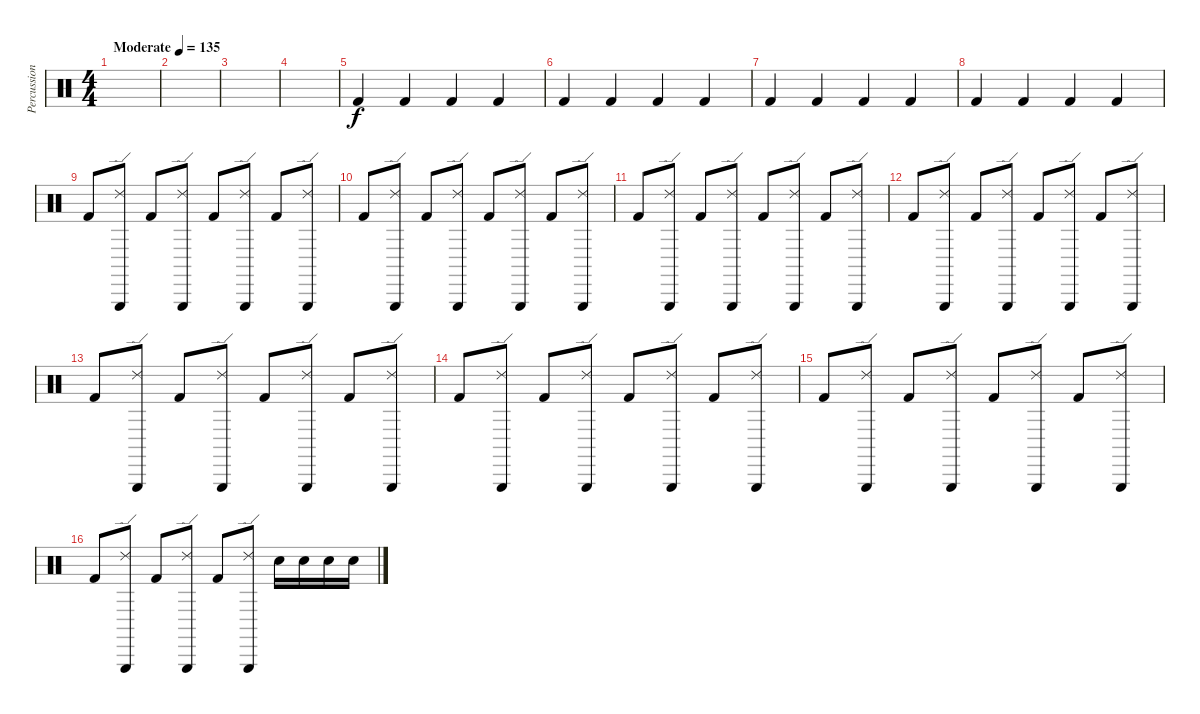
\track ("Percussion" "Percussion") {instrument percussion}
\staff {score}
\articulation defaults
\ts (4 4)
\tempo (135 "Moderate")
\clef neutral
\ks c
|
|
|
|
"Kick (hit) 2".4 "Kick (hit) 2".4 "Kick (hit) 2".4 "Kick (hit) 2".4 |
"Kick (hit) 2".4 "Kick (hit) 2".4 "Kick (hit) 2".4 "Kick (hit) 2".4 |
"Kick (hit) 2".4 "Kick (hit) 2".4 "Kick (hit) 2".4 "Kick (hit) 2".4 |
"Kick (hit) 2".4 "Kick (hit) 2".4 "Kick (hit) 2".4 "Kick (hit) 2".4 |
"Kick (hit) 2".8 ("Triangle (hit)" "Ride (edge) 2").8 "Kick (hit) 2".8 ("Triangle (hit)" "Ride (edge) 2").8 "Kick (hit) 2".8 ("Triangle (hit)" "Ride (edge) 2").8 "Kick (hit) 2".8 ("Triangle (hit)" "Ride (edge) 2").8 |
"Kick (hit) 2".8 ("Triangle (hit)" "Ride (edge) 2").8 "Kick (hit) 2".8 ("Triangle (hit)" "Ride (edge) 2").8 "Kick (hit) 2".8 ("Triangle (hit)" "Ride (edge) 2").8 "Kick (hit) 2".8 ("Triangle (hit)" "Ride (edge) 2").8 |
"Kick (hit) 2".8 ("Triangle (hit)" "Ride (edge) 2").8 "Kick (hit) 2".8 ("Triangle (hit)" "Ride (edge) 2").8 "Kick (hit) 2".8 ("Triangle (hit)" "Ride (edge) 2").8 "Kick (hit) 2".8 ("Triangle (hit)" "Ride (edge) 2").8 |
"Kick (hit) 2".8 ("Triangle (hit)" "Ride (edge) 2").8 "Kick (hit) 2".8 ("Triangle (hit)" "Ride (edge) 2").8 "Kick (hit) 2".8 ("Triangle (hit)" "Ride (edge) 2").8 "Kick (hit) 2".8 ("Triangle (hit)" "Ride (edge) 2").8 |
"Kick (hit) 2".8 ("Triangle (hit)" "Ride (edge) 2").8 "Kick (hit) 2".8 ("Triangle (hit)" "Ride (edge) 2").8 "Kick (hit) 2".8 ("Triangle (hit)" "Ride (edge) 2").8 "Kick (hit) 2".8 ("Triangle (hit)" "Ride (edge) 2").8 |
"Kick (hit) 2".8 ("Triangle (hit)" "Ride (edge) 2").8 "Kick (hit) 2".8 ("Triangle (hit)" "Ride (edge) 2").8 "Kick (hit) 2".8 ("Triangle (hit)" "Ride (edge) 2").8 "Kick (hit) 2".8 ("Triangle (hit)" "Ride (edge) 2").8 |
"Kick (hit) 2".8 ("Triangle (hit)" "Ride (edge) 2").8 "Kick (hit) 2".8 ("Triangle (hit)" "Ride (edge) 2").8 "Kick (hit) 2".8 ("Triangle (hit)" "Ride (edge) 2").8 "Kick (hit) 2".8 ("Triangle (hit)" "Ride (edge) 2").8 |
"Kick (hit) 2".8 ("Triangle (hit)" "Ride (edge) 2").8 "Kick (hit) 2".8 ("Triangle (hit)" "Ride (edge) 2").8 "Kick (hit) 2".8 ("Triangle (hit)" "Ride (edge) 2").8 "Snare (hit) 2".16 "Snare (hit) 2".16 "Snare (hit) 2".16 "Snare (hit) 2".16
